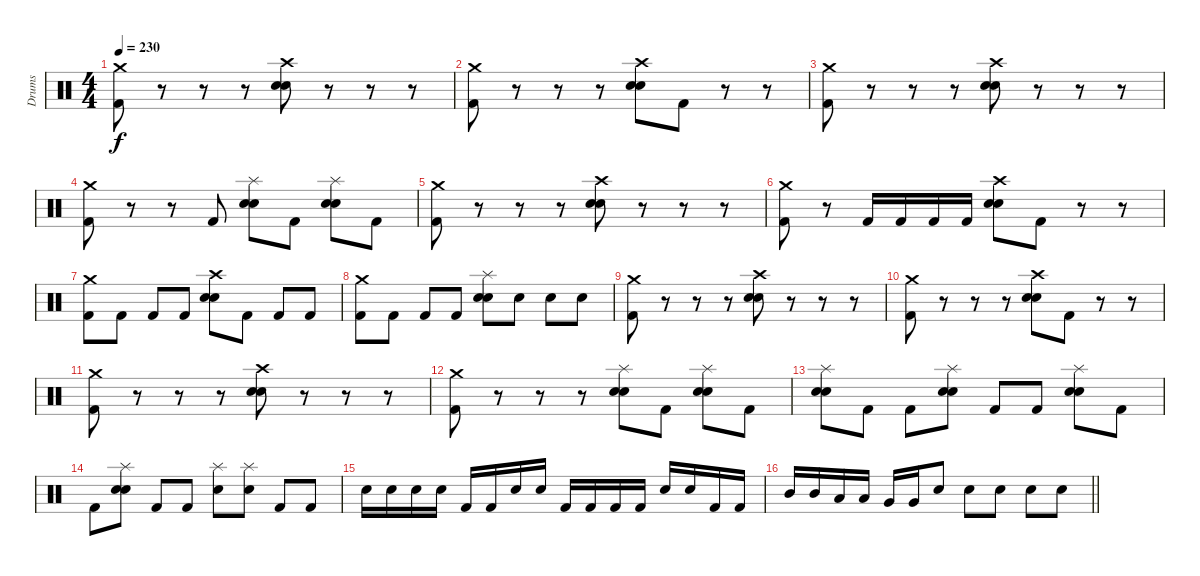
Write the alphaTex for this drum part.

\track ("Drums" "Drums") {instrument percussion}
\staff {score}
\articulation defaults
\ts (4 4)
\tempo 230
\clef neutral
\ks c
("Crash medium (hit)" "Kick (hit) 2").8{dy f} r.8 r.8 r.8 ("Crash high (hit)" "Electric Snare (hit)" "Snare (hit) 2").8 r.8 r.8 r.8 |
("Crash medium (hit)" "Kick (hit) 2").8 r.8 r.8 r.8 ("Crash high (hit)" "Electric Snare (hit)" "Snare (hit) 2").8 "Kick (hit) 2".8 r.8 r.8 |
("Crash medium (hit)" "Kick (hit) 2").8 r.8 r.8 r.8 ("Crash high (hit)" "Electric Snare (hit)" "Snare (hit) 2").8 r.8 r.8 r.8 |
("Crash medium (hit)" "Kick (hit) 2").8 r.8 r.8 "Kick (hit) 2".8 ("Splash (hit)" "Electric Snare (hit)" "Snare (hit) 2").8 "Kick (hit) 2".8 ("Splash (hit)" "Electric Snare (hit)" "Snare (hit) 2").8 "Kick (hit) 2".8 |
("Crash medium (hit)" "Kick (hit) 2").8 r.8 r.8 r.8 ("Crash high (hit)" "Electric Snare (hit)" "Snare (hit) 2").8 r.8 r.8 r.8 |
("Crash medium (hit)" "Kick (hit) 2").8 r.8 "Kick (hit) 2".16 "Kick (hit) 2".16 "Kick (hit) 2".16 "Kick (hit) 2".16 ("Crash high (hit)" "Electric Snare (hit)" "Snare (hit) 2").8 "Kick (hit) 2".8 r.8 r.8 |
("Crash medium (hit)" "Kick (hit) 2").8 "Kick (hit) 2".8 "Kick (hit) 2".8 "Kick (hit) 2".8 ("Crash high (hit)" "Electric Snare (hit)" "Snare (hit) 2").8 "Kick (hit) 2".8 "Kick (hit) 2".8 "Kick (hit) 2".8 |
("Crash medium (hit)" "Kick (hit) 2").8 "Kick (hit) 2".8 "Kick (hit) 2".8 "Kick (hit) 2".8 ("Splash (hit)" "Electric Snare (hit)" "Snare (hit) 2").8 "Electric Snare (hit)".8 "Electric Snare (hit)".8 "Electric Snare (hit)".8 |
("Crash medium (hit)" "Kick (hit) 2").8 r.8 r.8 r.8 ("Crash high (hit)" "Electric Snare (hit)" "Snare (hit) 2").8 r.8 r.8 r.8 |
("Crash medium (hit)" "Kick (hit) 2").8 r.8 r.8 r.8 ("Crash high (hit)" "Electric Snare (hit)" "Snare (hit) 2").8 "Kick (hit) 2".8 r.8 r.8 |
("Crash medium (hit)" "Kick (hit) 2").8 r.8 r.8 r.8 ("Crash high (hit)" "Electric Snare (hit)" "Snare (hit) 2").8 r.8 r.8 r.8 |
("Crash medium (hit)" "Kick (hit) 2").8 r.8 r.8 r.8 ("Splash (hit)" "Electric Snare (hit)" "Snare (hit) 2").8 "Kick (hit) 2".8 ("Splash (hit)" "Electric Snare (hit)" "Snare (hit) 2").8 "Kick (hit) 2".8 |
("Splash (hit)" "Electric Snare (hit)" "Snare (hit) 2").8 "Kick (hit) 2".8 "Kick (hit) 2".8 ("Splash (hit)" "Electric Snare (hit)" "Snare (hit) 2").8 "Kick (hit) 2".8 "Kick (hit) 2".8 ("Splash (hit)" "Electric Snare (hit)" "Snare (hit) 2").8 "Kick (hit) 2".8 |
"Kick (hit) 2".8 ("Splash (hit)" "Electric Snare (hit)" "Snare (hit) 2").8 "Kick (hit) 2".8 "Kick (hit) 2".8 ("Splash (hit)" "Electric Snare (hit)").8 ("Splash (hit)" "Electric Snare (hit)").8 "Kick (hit) 2".8 "Kick (hit) 2".8 |
"Electric Snare (hit)".16 "Electric Snare (hit)".16 "Electric Snare (hit)".16 "Electric Snare (hit)".16 "Kick (hit) 2".16 "Kick (hit) 2".16 "Electric Snare (hit)".16 "Electric Snare (hit)".16 "Kick (hit) 2".16 "Kick (hit) 2".16 "Kick (hit) 2".16 "Kick (hit) 2".16 "Electric Snare (hit)".16 "Electric Snare (hit)".16 "Kick (hit) 2".16 "Kick (hit) 2".16 |
\barLineRight lightlight "Mid Tom (hit)".16 "Mid Tom (hit)".16 "Low Tom (hit)".16 "Low Tom (hit)".16 "Very Low Tom (hit)".16 "Very Low Tom (hit)".16 "Electric Snare (hit)".8 "Electric Snare (hit)".8 "Electric Snare (hit)".8 "Electric Snare (hit)".8 "Electric Snare (hit)".8
